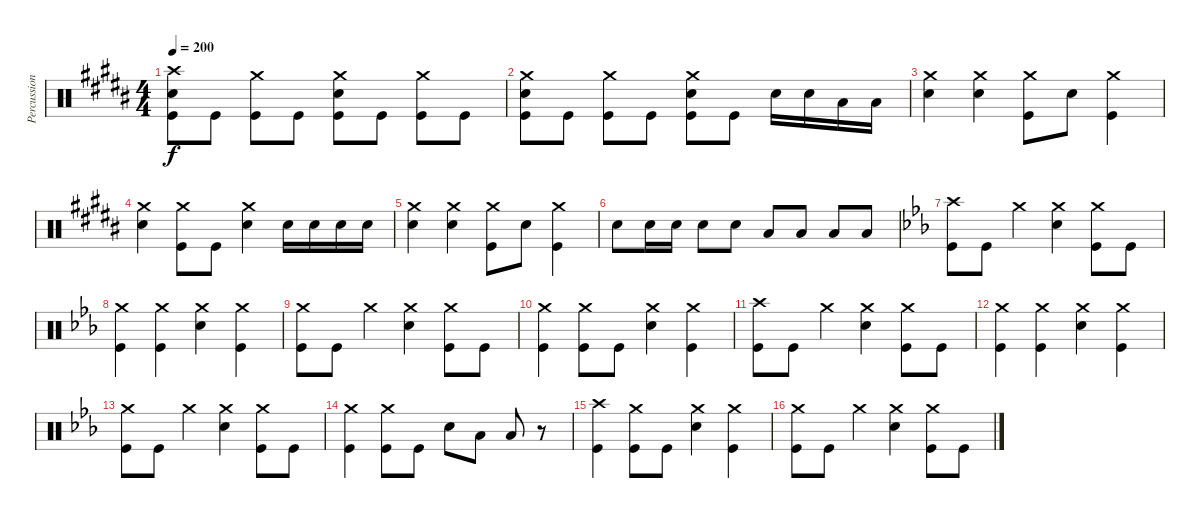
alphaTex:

\track ("Percussion" "Percussion") {instrument percussion}
\staff {score}
\articulation defaults
\ts (4 4)
\tempo 200
\clef neutral
\ks b
("Crash high (hit)" "Snare (hit) 2" "Kick (hit)").8{dy f} "Kick (hit)".8 ("Crash medium (hit)" "Kick (hit)").8 "Kick (hit)".8 ("Crash medium (hit)" "Snare (hit) 2" "Kick (hit)").8 "Kick (hit)".8 ("Crash medium (hit)" "Kick (hit)").8 "Kick (hit)".8 |
("Crash medium (hit)" "Snare (hit) 2" "Kick (hit)").8 "Kick (hit)".8 ("Crash medium (hit)" "Kick (hit)").8 "Kick (hit)".8 ("Crash medium (hit)" "Snare (hit) 2" "Kick (hit)").8 "Kick (hit)".8 "Snare (hit) 2".16 "Snare (hit) 2".16 "Low Tom (hit)".16 "Low Floor Tom (hit)".16 |
("Crash medium (hit)" "Snare (hit) 2").4 ("Crash medium (hit)" "Snare (hit) 2").4 ("Crash medium (hit)" "Kick (hit)").8 "Snare (hit) 2".8 ("Crash medium (hit)" "Kick (hit)").4 |
("Crash medium (hit)" "Snare (hit) 2").4 ("Crash medium (hit)" "Kick (hit)").8 "Kick (hit)".8 ("Crash medium (hit)" "Snare (hit) 2").4 "Snare (hit) 2".16 "Snare (hit) 2".16 "Snare (hit) 2".16 "Snare (hit) 2".16 |
("Crash medium (hit)" "Snare (hit) 2").4 ("Crash medium (hit)" "Snare (hit) 2").4 ("Crash medium (hit)" "Kick (hit)").8 "Snare (hit) 2".8 ("Crash medium (hit)" "Kick (hit)").4 |
"Snare (hit) 2".8 "Snare (hit) 2".16 "Snare (hit) 2".16 "Snare (hit) 2".8 "Snare (hit) 2".8 "Low Tom (hit)".8 "Low Tom (hit)".8 "Low Floor Tom (hit)".8 "Low Floor Tom (hit)".8 |
\ks eb
("Crash high (hit)" "Kick (hit)").8 "Kick (hit)".8 "Crash medium (hit)".4 ("Crash medium (hit)" "Snare (hit) 2").4 ("Crash medium (hit)" "Kick (hit)").8 "Kick (hit)".8 |
("Crash medium (hit)" "Kick (hit)").4 ("Crash medium (hit)" "Kick (hit)").4 ("Crash medium (hit)" "Snare (hit) 2").4 ("Crash medium (hit)" "Kick (hit)").4 |
("Crash medium (hit)" "Kick (hit)").8 "Kick (hit)".8 "Crash medium (hit)".4 ("Crash medium (hit)" "Snare (hit) 2").4 ("Crash medium (hit)" "Kick (hit)").8 "Kick (hit)".8 |
("Crash medium (hit)" "Kick (hit)").4 ("Crash medium (hit)" "Kick (hit)").8 "Kick (hit)".8 ("Crash medium (hit)" "Snare (hit) 2").4 ("Crash medium (hit)" "Kick (hit)").4 |
("Crash high (hit)" "Kick (hit)").8 "Kick (hit)".8 "Crash medium (hit)".4 ("Crash medium (hit)" "Snare (hit) 2").4 ("Crash medium (hit)" "Kick (hit)").8 "Kick (hit)".8 |
("Crash medium (hit)" "Kick (hit)").4 ("Crash medium (hit)" "Kick (hit)").4 ("Crash medium (hit)" "Snare (hit) 2").4 ("Crash medium (hit)" "Kick (hit)").4 |
("Crash medium (hit)" "Kick (hit)").8 "Kick (hit)".8 "Crash medium (hit)".4 ("Crash medium (hit)" "Snare (hit) 2").4 ("Crash medium (hit)" "Kick (hit)").8 "Kick (hit)".8 |
("Crash medium (hit)" "Kick (hit)").4 ("Crash medium (hit)" "Kick (hit)").8 "Kick (hit)".8 "Snare (hit) 2".8 "Low Tom (hit)".8 "Low Floor Tom (hit)".8 r.8 |
("Crash high (hit)" "Kick (hit)").4 ("Crash medium (hit)" "Kick (hit)").8 "Kick (hit)".8 ("Crash medium (hit)" "Snare (hit) 2").4 ("Crash medium (hit)" "Kick (hit)").4 |
("Crash medium (hit)" "Kick (hit)").8 "Kick (hit)".8 "Crash medium (hit)".4 ("Crash medium (hit)" "Snare (hit) 2").4 ("Crash medium (hit)" "Kick (hit)").8 "Kick (hit)".8
